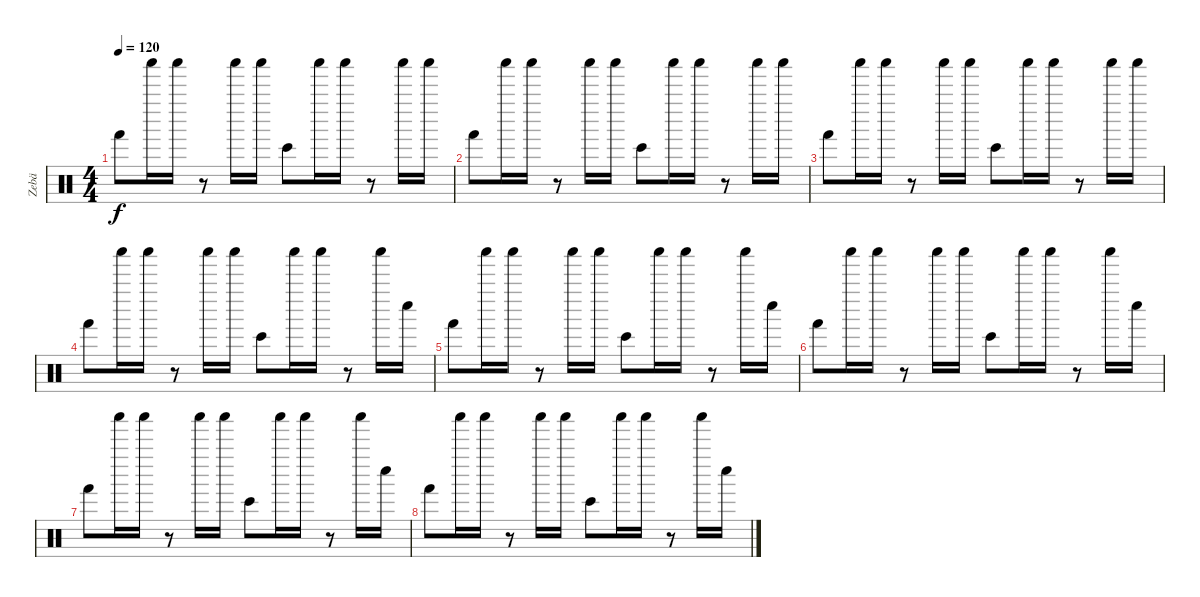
\track ("Zebä" "Zebä") {instrument percussion}
\staff {score}
\articulation defaults
\ts (4 4)
\tempo 120
\clef neutral
\ks c "Hand (hit)".8{dy f volume 13} "Shaker (hit)".16 "Shaker (hit)".16
r.8 "Shaker (hit)".16 "Shaker (hit)".16 "Bongo High (hit)".8 "Shaker (hit)".16 "Shaker (hit)".16 r.8 "Shaker (hit)".16 "Shaker (hit)".16 |
"Hand (hit)".8{volume 12} "Shaker (hit)".16 "Shaker (hit)".16 r.8 "Shaker (hit)".16 "Shaker (hit)".16 "Bongo High (hit)".8 "Shaker (hit)".16 "Shaker (hit)".16 r.8 "Shaker (hit)".16 "Shaker (hit)".16 |
"Hand (hit)".8{volume 10} "Shaker (hit)".16 "Shaker (hit)".16 r.8 "Shaker (hit)".16 "Shaker (hit)".16 "Bongo High (hit)".8 "Shaker (hit)".16 "Shaker (hit)".16 r.8 "Shaker (hit)".16 "Shaker (hit)".16 |
"Hand (hit)".8{volume 8} "Shaker (hit)".16 "Shaker (hit)".16 r.8 "Shaker (hit)".16 "Shaker (hit)".16 "Bongo High (hit)".8 "Shaker (hit)".16 "Shaker (hit)".16 r.8 "Shaker (hit)".16 "Whistle low (hit)".16 |
"Hand (hit)".8{volume 6} "Shaker (hit)".16 "Shaker (hit)".16 r.8 "Shaker (hit)".16 "Shaker (hit)".16 "Bongo High (hit)".8 "Shaker (hit)".16 "Shaker (hit)".16 r.8 "Shaker (hit)".16 "Whistle low (hit)".16 |
"Hand (hit)".8{volume 4} "Shaker (hit)".16 "Shaker (hit)".16 r.8 "Shaker (hit)".16 "Shaker (hit)".16 "Bongo High (hit)".8 "Shaker (hit)".16 "Shaker (hit)".16 r.8 "Shaker (hit)".16 "Whistle low (hit)".16 |
"Hand (hit)".8{volume 2} "Shaker (hit)".16 "Shaker (hit)".16 r.8 "Shaker (hit)".16 "Shaker (hit)".16 "Bongo High (hit)".8 "Shaker (hit)".16 "Shaker (hit)".16 r.8 "Shaker (hit)".16 "Whistle low (hit)".16 |
"Hand (hit)".8{volume 0} "Shaker (hit)".16 "Shaker (hit)".16 r.8 "Shaker (hit)".16 "Shaker (hit)".16 "Bongo High (hit)".8 "Shaker (hit)".16 "Shaker (hit)".16 r.8 "Shaker (hit)".16 "Whistle low (hit)".16
